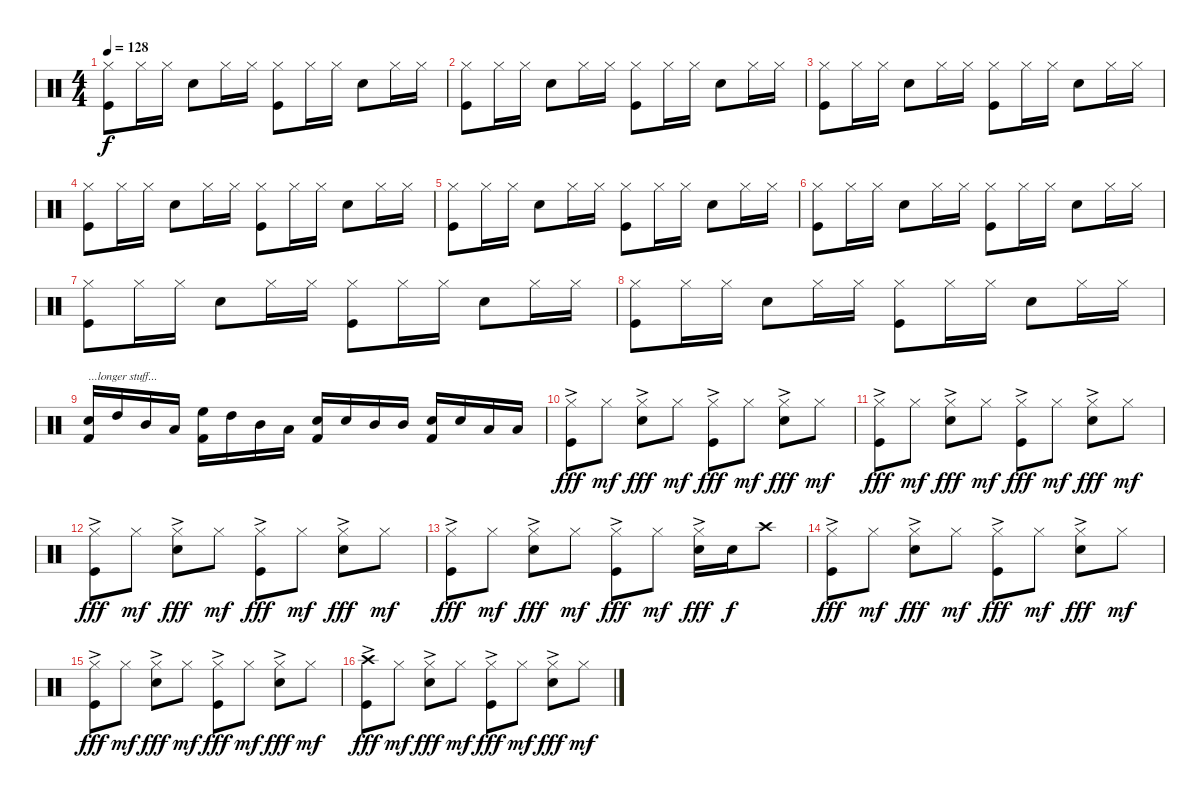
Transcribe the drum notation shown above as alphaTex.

\track "" {instrument percussion}
\staff {score}
\articulation defaults
\ts (4 4)
\tempo 128
\clef neutral
\ks c
("Hi-Hat (closed)" "Kick (hit)").8{dy f} "Hi-Hat (closed)".16 "Hi-Hat (closed)".16 "Electric Snare (hit)".8 "Hi-Hat (closed)".16 "Hi-Hat (closed)".16 ("Hi-Hat (closed)" "Kick (hit)").8 "Hi-Hat (closed)".16 "Hi-Hat (closed)".16 "Electric Snare (hit)".8 "Hi-Hat (closed)".16 "Hi-Hat (closed)".16 |
("Hi-Hat (closed)" "Kick (hit)").8 "Hi-Hat (closed)".16 "Hi-Hat (closed)".16 "Electric Snare (hit)".8 "Hi-Hat (closed)".16 "Hi-Hat (closed)".16 ("Hi-Hat (closed)" "Kick (hit)").8 "Hi-Hat (closed)".16 "Hi-Hat (closed)".16 "Electric Snare (hit)".8 "Hi-Hat (closed)".16 "Hi-Hat (closed)".16 |
("Hi-Hat (closed)" "Kick (hit)").8 "Hi-Hat (closed)".16 "Hi-Hat (closed)".16 "Electric Snare (hit)".8 "Hi-Hat (closed)".16 "Hi-Hat (closed)".16 ("Hi-Hat (closed)" "Kick (hit)").8 "Hi-Hat (closed)".16 "Hi-Hat (closed)".16 "Electric Snare (hit)".8 "Hi-Hat (closed)".16 "Hi-Hat (closed)".16 |
("Hi-Hat (closed)" "Kick (hit)").8 "Hi-Hat (closed)".16 "Hi-Hat (closed)".16 "Electric Snare (hit)".8 "Hi-Hat (closed)".16 "Hi-Hat (closed)".16 ("Hi-Hat (closed)" "Kick (hit)").8 "Hi-Hat (closed)".16 "Hi-Hat (closed)".16 "Electric Snare (hit)".8 "Hi-Hat (closed)".16 "Hi-Hat (closed)".16 |
("Hi-Hat (closed)" "Kick (hit)").8 "Hi-Hat (closed)".16 "Hi-Hat (closed)".16 "Electric Snare (hit)".8 "Hi-Hat (closed)".16 "Hi-Hat (closed)".16 ("Hi-Hat (closed)" "Kick (hit)").8 "Hi-Hat (closed)".16 "Hi-Hat (closed)".16 "Electric Snare (hit)".8 "Hi-Hat (closed)".16 "Hi-Hat (closed)".16 |
("Hi-Hat (closed)" "Kick (hit)").8 "Hi-Hat (closed)".16 "Hi-Hat (closed)".16 "Electric Snare (hit)".8 "Hi-Hat (closed)".16 "Hi-Hat (closed)".16 ("Hi-Hat (closed)" "Kick (hit)").8 "Hi-Hat (closed)".16 "Hi-Hat (closed)".16 "Electric Snare (hit)".8 "Hi-Hat (closed)".16 "Hi-Hat (closed)".16 |
("Hi-Hat (closed)" "Kick (hit)").8 "Hi-Hat (closed)".16 "Hi-Hat (closed)".16 "Electric Snare (hit)".8 "Hi-Hat (closed)".16 "Hi-Hat (closed)".16 ("Hi-Hat (closed)" "Kick (hit)").8 "Hi-Hat (closed)".16 "Hi-Hat (closed)".16 "Electric Snare (hit)".8 "Hi-Hat (closed)".16 "Hi-Hat (closed)".16 |
("Hi-Hat (closed)" "Kick (hit)").8 "Hi-Hat (closed)".16 "Hi-Hat (closed)".16 "Electric Snare (hit)".8 "Hi-Hat (closed)".16 "Hi-Hat (closed)".16 ("Hi-Hat (closed)" "Kick (hit)").8 "Hi-Hat (closed)".16 "Hi-Hat (closed)".16 "Electric Snare (hit)".8 "Hi-Hat (closed)".16 "Hi-Hat (closed)".16 |
("Electric Snare (hit)" "Kick (hit) 2").16{txt "...longer stuff..."} "High Tom (hit)".16 "Mid Tom (hit)".16 "Low Tom (hit)".16 ("High Floor Tom (hit)" "Kick (hit) 2").16 "High Tom (hit)".16 "Mid Tom (hit)".16 "Low Tom (hit)".16 ("Electric Snare (hit)" "Kick (hit) 2").16 "Electric Snare (hit)".16 "Mid Tom (hit)".16 "Mid Tom (hit)".16 ("Electric Snare (hit)" "Kick (hit) 2").16 "Electric Snare (hit)".16 "Low Tom (hit)".16 "Low Floor Tom (hit)".16 |
("Hi-Hat (closed)"{ac} "Kick (hit)").8{dy fff} "Hi-Hat (closed)".8{dy mf} ("Hi-Hat (closed)"{ac} "Electric Snare (hit)").8{dy fff} "Hi-Hat (closed)".8{dy mf} ("Hi-Hat (closed)"{ac} "Kick (hit)").8{dy fff} "Hi-Hat (closed)".8{dy mf} ("Hi-Hat (closed)"{ac} "Electric Snare (hit)").8{dy fff} "Hi-Hat (closed)".8{dy mf} |
("Hi-Hat (closed)"{ac} "Kick (hit)").8{dy fff} "Hi-Hat (closed)".8{dy mf} ("Hi-Hat (closed)"{ac} "Electric Snare (hit)").8{dy fff} "Hi-Hat (closed)".8{dy mf} ("Hi-Hat (closed)"{ac} "Kick (hit)").8{dy fff} "Hi-Hat (closed)".8{dy mf} ("Hi-Hat (closed)"{ac} "Electric Snare (hit)").8{dy fff} "Hi-Hat (closed)".8{dy mf} |
("Hi-Hat (closed)"{ac} "Kick (hit)").8{dy fff} "Hi-Hat (closed)".8{dy mf} ("Hi-Hat (closed)"{ac} "Electric Snare (hit)").8{dy fff} "Hi-Hat (closed)".8{dy mf} ("Hi-Hat (closed)"{ac} "Kick (hit)").8{dy fff} "Hi-Hat (closed)".8{dy mf} ("Hi-Hat (closed)"{ac} "Electric Snare (hit)").8{dy fff} "Hi-Hat (closed)".8{dy mf} |
("Hi-Hat (closed)"{ac} "Kick (hit)").8{dy fff} "Hi-Hat (closed)".8{dy mf} ("Hi-Hat (closed)"{ac} "Electric Snare (hit)").8{dy fff} "Hi-Hat (closed)".8{dy mf} ("Hi-Hat (closed)"{ac} "Kick (hit)").8{dy fff} "Hi-Hat (closed)".8{dy mf} ("Hi-Hat (closed)"{ac} "Electric Snare (hit)").16{dy fff} "Electric Snare (hit)".16{dy f} "Crash high (hit)".8 |
("Hi-Hat (closed)"{ac} "Kick (hit)").8{dy fff} "Hi-Hat (closed)".8{dy mf} ("Hi-Hat (closed)"{ac} "Electric Snare (hit)").8{dy fff} "Hi-Hat (closed)".8{dy mf} ("Hi-Hat (closed)"{ac} "Kick (hit)").8{dy fff} "Hi-Hat (closed)".8{dy mf} ("Hi-Hat (closed)"{ac} "Electric Snare (hit)").8{dy fff} "Hi-Hat (closed)".8{dy mf} |
("Hi-Hat (closed)"{ac} "Kick (hit)").8{dy fff} "Hi-Hat (closed)".8{dy mf} ("Hi-Hat (closed)"{ac} "Electric Snare (hit)").8{dy fff} "Hi-Hat (closed)".8{dy mf} ("Hi-Hat (closed)"{ac} "Kick (hit)").8{dy fff} "Hi-Hat (closed)".8{dy mf} ("Hi-Hat (closed)"{ac} "Electric Snare (hit)").8{dy fff} "Hi-Hat (closed)".8{dy mf} |
("Crash high (hit)"{ac} "Kick (hit)").8{dy fff} "Hi-Hat (closed)".8{dy mf} ("Hi-Hat (closed)"{ac} "Electric Snare (hit)").8{dy fff} "Hi-Hat (closed)".8{dy mf} ("Hi-Hat (closed)"{ac} "Kick (hit)").8{dy fff} "Hi-Hat (closed)".8{dy mf} ("Hi-Hat (closed)"{ac} "Electric Snare (hit)").8{dy fff} "Hi-Hat (closed)".8{dy mf}
